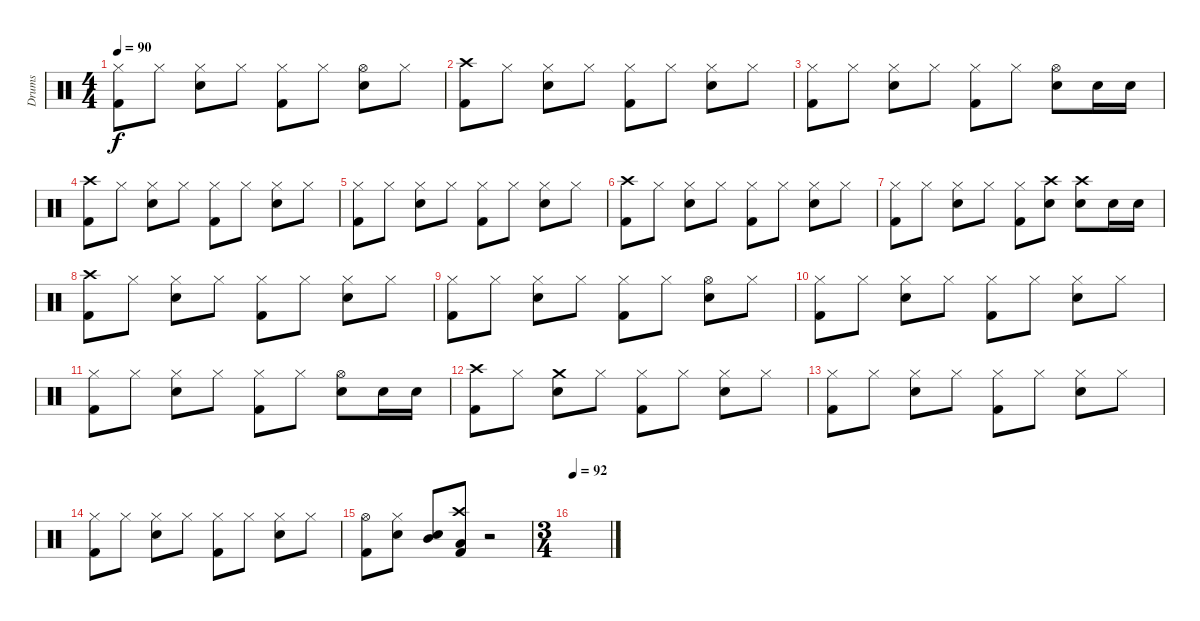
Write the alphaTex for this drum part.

\track ("Drums" "Drums") {instrument percussion}
\staff {score}
\articulation defaults
\ts (4 4)
\tempo 90
\clef neutral
\ks c
("Hi-Hat (closed)" "Kick (hit) 2").8{dy f} "Hi-Hat (closed)".8 ("Hi-Hat (closed)" "Snare (hit) 2").8 "Hi-Hat (closed)".8 ("Hi-Hat (closed)" "Kick (hit) 2").8 "Hi-Hat (closed)".8 ("Hi-Hat (open)" "Snare (hit) 2").8 "Hi-Hat (closed)".8 |
("Kick (hit) 2" "Crash high (hit)").8 "Hi-Hat (closed)".8 ("Hi-Hat (closed)" "Snare (hit) 2").8 "Hi-Hat (closed)".8 ("Hi-Hat (closed)" "Kick (hit) 2").8 "Hi-Hat (closed)".8 ("Hi-Hat (closed)" "Snare (hit) 2").8 "Hi-Hat (closed)".8 |
("Hi-Hat (closed)" "Kick (hit) 2").8 "Hi-Hat (closed)".8 ("Hi-Hat (closed)" "Snare (hit) 2").8 "Hi-Hat (closed)".8 ("Hi-Hat (closed)" "Kick (hit) 2").8 "Hi-Hat (closed)".8 ("Hi-Hat (open)" "Snare (hit) 2").8 "Snare (hit) 2".16 "Snare (hit) 2".16 |
("Kick (hit) 2" "Crash high (hit)").8 "Hi-Hat (closed)".8 ("Hi-Hat (closed)" "Snare (hit) 2").8 "Hi-Hat (closed)".8 ("Hi-Hat (closed)" "Kick (hit) 2").8 "Hi-Hat (closed)".8 ("Hi-Hat (closed)" "Snare (hit) 2").8 "Hi-Hat (closed)".8 |
("Hi-Hat (closed)" "Kick (hit) 2").8 "Hi-Hat (closed)".8 ("Hi-Hat (closed)" "Snare (hit) 2").8 "Hi-Hat (closed)".8 ("Hi-Hat (closed)" "Kick (hit) 2").8 "Hi-Hat (closed)".8 ("Hi-Hat (closed)" "Snare (hit) 2").8 "Hi-Hat (closed)".8 |
("Kick (hit) 2" "Crash high (hit)").8 "Hi-Hat (closed)".8 ("Hi-Hat (closed)" "Snare (hit) 2").8 "Hi-Hat (closed)".8 ("Hi-Hat (closed)" "Kick (hit) 2").8 "Hi-Hat (closed)".8 ("Hi-Hat (closed)" "Snare (hit) 2").8 "Hi-Hat (closed)".8 |
("Hi-Hat (closed)" "Kick (hit) 2").8 "Hi-Hat (closed)".8 ("Hi-Hat (closed)" "Snare (hit) 2").8 "Hi-Hat (closed)".8 ("Hi-Hat (closed)" "Kick (hit) 2").8 ("Snare (hit) 2" "Crash high (hit)").8 ("Snare (hit) 2" "Crash high (hit)").8 "Snare (hit) 2".16 "Snare (hit) 2".16 |
("Kick (hit) 2" "Crash high (hit)").8 "Hi-Hat (closed)".8 ("Hi-Hat (closed)" "Snare (hit) 2").8 "Hi-Hat (closed)".8 ("Hi-Hat (closed)" "Kick (hit) 2").8 "Hi-Hat (closed)".8 ("Hi-Hat (closed)" "Snare (hit) 2").8 "Hi-Hat (closed)".8 |
("Hi-Hat (closed)" "Kick (hit) 2").8 "Hi-Hat (closed)".8 ("Hi-Hat (closed)" "Snare (hit) 2").8 "Hi-Hat (closed)".8 ("Hi-Hat (closed)" "Kick (hit) 2").8 "Hi-Hat (closed)".8 ("Hi-Hat (open)" "Snare (hit) 2").8 "Hi-Hat (closed)".8 |
("Hi-Hat (closed)" "Kick (hit) 2").8 "Hi-Hat (closed)".8 ("Hi-Hat (closed)" "Snare (hit) 2").8 "Hi-Hat (closed)".8 ("Hi-Hat (closed)" "Kick (hit) 2").8 "Hi-Hat (closed)".8 ("Hi-Hat (closed)" "Snare (hit) 2").8 "Hi-Hat (closed)".8 |
("Hi-Hat (closed)" "Kick (hit) 2").8 "Hi-Hat (closed)".8 ("Hi-Hat (closed)" "Snare (hit) 2").8 "Hi-Hat (closed)".8 ("Hi-Hat (closed)" "Kick (hit) 2").8 "Hi-Hat (closed)".8 ("Hi-Hat (open)" "Snare (hit) 2").8 "Snare (hit) 2".16 "Snare (hit) 2".16 |
("Kick (hit) 2" "Crash high (hit)").8 "Hi-Hat (closed)".8 ("Snare (hit) 2" "Crash medium (hit)").8 "Hi-Hat (closed)".8 ("Hi-Hat (closed)" "Kick (hit) 2").8 "Hi-Hat (closed)".8 ("Hi-Hat (closed)" "Snare (hit) 2").8 "Hi-Hat (closed)".8 |
("Hi-Hat (closed)" "Kick (hit) 2").8 "Hi-Hat (closed)".8 ("Hi-Hat (closed)" "Snare (hit) 2").8 "Hi-Hat (closed)".8 ("Hi-Hat (closed)" "Kick (hit) 2").8 "Hi-Hat (closed)".8 ("Hi-Hat (closed)" "Snare (hit) 2").8 "Hi-Hat (closed)".8 |
("Hi-Hat (closed)" "Kick (hit) 2").8 "Hi-Hat (closed)".8 ("Hi-Hat (closed)" "Snare (hit) 2").8 "Hi-Hat (closed)".8 ("Hi-Hat (closed)" "Kick (hit) 2").8 "Hi-Hat (closed)".8 ("Hi-Hat (closed)" "Snare (hit) 2").8 "Hi-Hat (closed)".8 |
("Hi-Hat (open)" "Kick (hit) 2").8 ("Hi-Hat (closed)" "Snare (hit) 2").8 ("Mid Tom (hit)" "Snare (hit) 2").8 ("Low Floor Tom (hit)" "Kick (hit) 2" "Crash high (hit)").8 r.2 |
\ts (3 4)
\tempo 92
